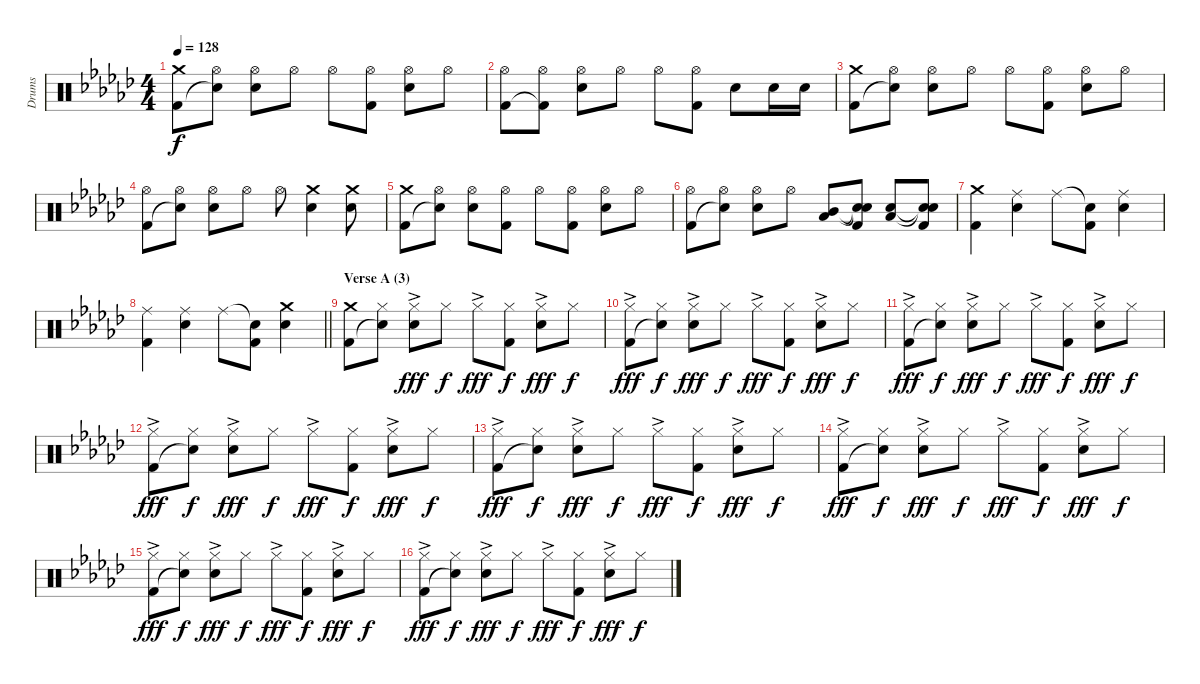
\track ("Drums" "Drums") {instrument percussion}
\staff {score}
\articulation defaults
\ts (4 4)
\tempo 128
\clef neutral
\ks gb
("Crash medium (hit)" "Kick (hit) 2").8{dy f} ("Hi-Hat (open)" "Snare (hit)"{t}).8 ("Hi-Hat (open)" "Electric Snare (hit)").8 "Hi-Hat (open)".8 "Hi-Hat (open)".8 ("Hi-Hat (open)" "Kick (hit) 2").8 ("Hi-Hat (open)" "Electric Snare (hit)").8 "Hi-Hat (open)".8 |
("Hi-Hat (open)" "Kick (hit) 2").8 ("Hi-Hat (open)" "Kick (hit) 2"{t}).8 ("Hi-Hat (open)" "Electric Snare (hit)").8 "Hi-Hat (open)".8 "Hi-Hat (open)".8 ("Hi-Hat (open)" "Kick (hit) 2").8 "Electric Snare (hit)".8 "Electric Snare (hit)".16 "Electric Snare (hit)".16 |
("Crash medium (hit)" "Kick (hit) 2").8 ("Hi-Hat (open)" "Snare (hit)"{t}).8 ("Hi-Hat (open)" "Electric Snare (hit)").8 "Hi-Hat (open)".8 "Hi-Hat (open)".8 ("Hi-Hat (open)" "Kick (hit) 2").8 ("Hi-Hat (open)" "Electric Snare (hit)").8 "Hi-Hat (open)".8 |
("Hi-Hat (open)" "Kick (hit) 2").8 ("Hi-Hat (open)" "Snare (hit)"{t}).8 ("Hi-Hat (open)" "Electric Snare (hit)").8 "Hi-Hat (open)".8 "Hi-Hat (open)".8 ("Crash medium (hit)" "Electric Snare (hit)").4 ("Crash medium (hit)" "Electric Snare (hit)").8 |
("Crash medium (hit)" "Kick (hit) 2").8 ("Hi-Hat (open)" "Snare (hit)"{t}).8 ("Hi-Hat (open)" "Electric Snare (hit)").8 ("Hi-Hat (open)" "Kick (hit) 2").8 "Hi-Hat (open)".8 ("Hi-Hat (open)" "Kick (hit) 2").8 ("Hi-Hat (open)" "Electric Snare (hit)").8 "Hi-Hat (open)".8 |
("Hi-Hat (open)" "Kick (hit) 2").8 ("Hi-Hat (open)" "Snare (hit)"{t}).8 ("Hi-Hat (open)" "Electric Snare (hit)").8 "Hi-Hat (open)".8 ("Mid Tom (hit)" "Low Floor Tom (hit)").8 ("Snare (hit)"{t} "Snare (hit)"{t} "Kick (hit) 2").8 ("Electric Snare (hit)" "Low Floor Tom (hit)").8 ("Snare (hit)"{t} "Snare (hit)"{t} "Kick (hit) 2").8 |
("Crash medium (hit)" "Kick (hit) 2").4 ("Ride (middle)" "Electric Snare (hit)").4 "Ride (middle)".8 ("Snare (hit)"{t} "Kick (hit) 2").8 ("Ride (middle)" "Electric Snare (hit)").4 |
\barLineRight lightlight
("Ride (middle)" "Kick (hit) 2").4 ("Ride (middle)" "Electric Snare (hit)").4 "Ride (middle)".8 ("Snare (hit)"{t} "Kick (hit) 2").8 ("Crash medium (hit)" "Electric Snare (hit)").4 |
\section ("" "Verse A (3)")
("Crash medium (hit)" "Kick (hit) 2").8 ("Hi-Hat (closed)" "Snare (hit)"{t}).8 ("Hi-Hat (closed)"{ac} "Electric Snare (hit)").8{dy fff} "Hi-Hat (closed)".8{dy f} "Hi-Hat (closed)"{ac}.8{dy fff} ("Hi-Hat (closed)" "Kick (hit) 2").8{dy f} ("Hi-Hat (closed)"{ac} "Electric Snare (hit)").8{dy fff} "Hi-Hat (closed)".8{dy f} |
("Hi-Hat (closed)"{ac} "Kick (hit) 2").8{dy fff} ("Hi-Hat (closed)" "Snare (hit)"{t}).8{dy f} ("Hi-Hat (closed)"{ac} "Electric Snare (hit)").8{dy fff} "Hi-Hat (closed)".8{dy f} "Hi-Hat (closed)"{ac}.8{dy fff} ("Hi-Hat (closed)" "Kick (hit) 2").8{dy f} ("Hi-Hat (closed)"{ac} "Electric Snare (hit)").8{dy fff} "Hi-Hat (closed)".8{dy f} |
("Hi-Hat (closed)"{ac} "Kick (hit) 2").8{dy fff} ("Hi-Hat (closed)" "Snare (hit)"{t}).8{dy f} ("Hi-Hat (closed)"{ac} "Electric Snare (hit)").8{dy fff} "Hi-Hat (closed)".8{dy f} "Hi-Hat (closed)"{ac}.8{dy fff} ("Hi-Hat (closed)" "Kick (hit) 2").8{dy f} ("Hi-Hat (closed)"{ac} "Electric Snare (hit)").8{dy fff} "Hi-Hat (closed)".8{dy f} |
("Hi-Hat (closed)"{ac} "Kick (hit) 2").8{dy fff} ("Hi-Hat (closed)" "Snare (hit)"{t}).8{dy f} ("Hi-Hat (closed)"{ac} "Electric Snare (hit)").8{dy fff} "Hi-Hat (closed)".8{dy f} "Hi-Hat (closed)"{ac}.8{dy fff} ("Hi-Hat (closed)" "Kick (hit) 2").8{dy f} ("Hi-Hat (closed)"{ac} "Electric Snare (hit)").8{dy fff} "Hi-Hat (closed)".8{dy f} |
("Hi-Hat (closed)"{ac} "Kick (hit) 2").8{dy fff} ("Hi-Hat (closed)" "Snare (hit)"{t}).8{dy f} ("Hi-Hat (closed)"{ac} "Electric Snare (hit)").8{dy fff} "Hi-Hat (closed)".8{dy f} "Hi-Hat (closed)"{ac}.8{dy fff} ("Hi-Hat (closed)" "Kick (hit) 2").8{dy f} ("Hi-Hat (closed)"{ac} "Electric Snare (hit)").8{dy fff} "Hi-Hat (closed)".8{dy f} |
("Hi-Hat (closed)"{ac} "Kick (hit) 2").8{dy fff} ("Hi-Hat (closed)" "Snare (hit)"{t}).8{dy f} ("Hi-Hat (closed)"{ac} "Electric Snare (hit)").8{dy fff} "Hi-Hat (closed)".8{dy f} "Hi-Hat (closed)"{ac}.8{dy fff} ("Hi-Hat (closed)" "Kick (hit) 2").8{dy f} ("Hi-Hat (closed)"{ac} "Electric Snare (hit)").8{dy fff} "Hi-Hat (closed)".8{dy f} |
("Hi-Hat (closed)"{ac} "Kick (hit) 2").8{dy fff} ("Hi-Hat (closed)" "Snare (hit)"{t}).8{dy f} ("Hi-Hat (closed)"{ac} "Electric Snare (hit)").8{dy fff} "Hi-Hat (closed)".8{dy f} "Hi-Hat (closed)"{ac}.8{dy fff} ("Hi-Hat (closed)" "Kick (hit) 2").8{dy f} ("Hi-Hat (closed)"{ac} "Electric Snare (hit)").8{dy fff} "Hi-Hat (closed)".8{dy f} |
("Hi-Hat (closed)"{ac} "Kick (hit) 2").8{dy fff} ("Hi-Hat (closed)" "Snare (hit)"{t}).8{dy f} ("Hi-Hat (closed)"{ac} "Electric Snare (hit)").8{dy fff} "Hi-Hat (closed)".8{dy f} "Hi-Hat (closed)"{ac}.8{dy fff} ("Hi-Hat (closed)" "Kick (hit) 2").8{dy f} ("Hi-Hat (closed)"{ac} "Electric Snare (hit)").8{dy fff} "Hi-Hat (closed)".8{dy f}
